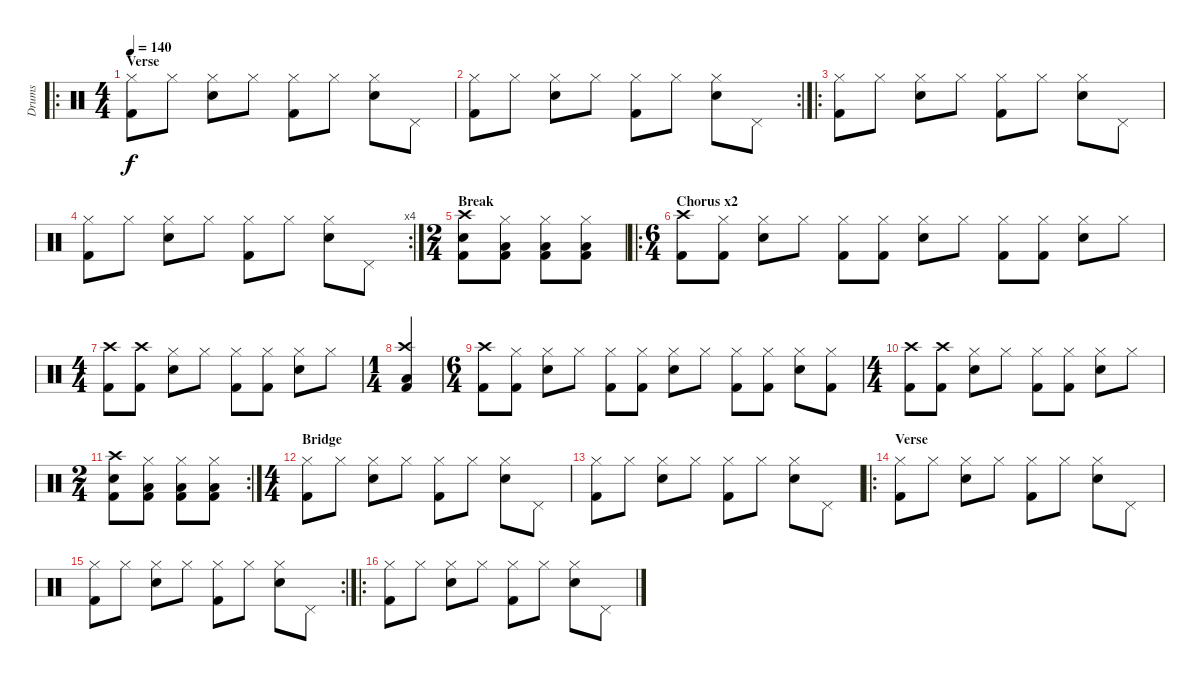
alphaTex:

\track ("Drums" "Drums") {instrument percussion}
\staff {score}
\articulation defaults
\ro
\ts (4 4)
\section ("" "Verse")
\tempo 140
\clef neutral
\ks c
("Hi-Hat (closed)" "Kick (hit) 2").8{dy f} "Hi-Hat (closed)".8 ("Hi-Hat (closed)" "Snare (hit) 2").8 "Hi-Hat (closed)".8 ("Hi-Hat (closed)" "Kick (hit) 2").8 "Hi-Hat (closed)".8 ("Hi-Hat (closed)" "Snare (hit) 2").8 "Pedal Hi-Hat (hit)".8 |
\rc 2
("Hi-Hat (closed)" "Kick (hit) 2").8 "Hi-Hat (closed)".8 ("Hi-Hat (closed)" "Snare (hit) 2").8 "Hi-Hat (closed)".8 ("Hi-Hat (closed)" "Kick (hit) 2").8 "Hi-Hat (closed)".8 ("Hi-Hat (closed)" "Snare (hit) 2").8 "Pedal Hi-Hat (hit)".8 |
\ro
("Hi-Hat (closed)" "Kick (hit) 2").8 "Hi-Hat (closed)".8 ("Hi-Hat (closed)" "Snare (hit) 2").8 "Hi-Hat (closed)".8 ("Hi-Hat (closed)" "Kick (hit) 2").8 "Hi-Hat (closed)".8 ("Hi-Hat (closed)" "Snare (hit) 2").8 "Pedal Hi-Hat (hit)".8 |
\rc 4
("Hi-Hat (closed)" "Kick (hit) 2").8 "Hi-Hat (closed)".8 ("Hi-Hat (closed)" "Snare (hit) 2").8 "Hi-Hat (closed)".8 ("Hi-Hat (closed)" "Kick (hit) 2").8 "Hi-Hat (closed)".8 ("Hi-Hat (closed)" "Snare (hit) 2").8 "Pedal Hi-Hat (hit)".8 |
\ts (2 4)
\section ("" "Break")
("Crash high (hit)" "Snare (hit) 2" "Kick (hit) 2").8 ("Hi-Hat (closed)" "Low Floor Tom (hit)" "Kick (hit) 2").8 ("Hi-Hat (closed)" "Low Floor Tom (hit)" "Kick (hit) 2").8 ("Hi-Hat (closed)" "Low Floor Tom (hit)" "Kick (hit) 2").8 |
\ro
\ts (6 4)
\section ("" "Chorus x2")
("Crash high (hit)" "Kick (hit) 2").8 ("Hi-Hat (closed)" "Kick (hit) 2").8 ("Hi-Hat (closed)" "Snare (hit) 2").8 "Hi-Hat (closed)".8 ("Hi-Hat (closed)" "Kick (hit) 2").8 ("Hi-Hat (closed)" "Kick (hit) 2").8 ("Hi-Hat (closed)" "Snare (hit) 2").8 "Hi-Hat (closed)".8 ("Hi-Hat (closed)" "Kick (hit) 2").8 ("Hi-Hat (closed)" "Kick (hit) 2").8 ("Hi-Hat (closed)" "Snare (hit) 2").8 "Hi-Hat (closed)".8 |
\ts (4 4)
("Crash high (hit)" "Kick (hit) 2").8 ("Crash high (hit)" "Kick (hit) 2").8 ("Hi-Hat (closed)" "Snare (hit) 2").8 "Hi-Hat (closed)".8 ("Hi-Hat (closed)" "Kick (hit) 2").8 ("Hi-Hat (closed)" "Kick (hit) 2").8 ("Hi-Hat (closed)" "Snare (hit) 2").8 "Hi-Hat (closed)".8 |
\ts (1 4)
("Crash high (hit)" "Low Floor Tom (hit)" "Kick (hit) 2").4 |
\ts (6 4)
("Crash high (hit)" "Kick (hit) 2").8 ("Hi-Hat (closed)" "Kick (hit) 2").8 ("Hi-Hat (closed)" "Snare (hit) 2").8 "Hi-Hat (closed)".8 ("Hi-Hat (closed)" "Kick (hit) 2").8 ("Hi-Hat (closed)" "Kick (hit) 2").8 ("Hi-Hat (closed)" "Snare (hit) 2").8 "Hi-Hat (closed)".8 ("Hi-Hat (closed)" "Kick (hit) 2").8 ("Hi-Hat (closed)" "Kick (hit) 2").8 ("Hi-Hat (closed)" "Snare (hit) 2").8 ("Hi-Hat (closed)" "Kick (hit) 2").8 |
\ts (4 4)
("Crash high (hit)" "Kick (hit) 2").8 ("Crash high (hit)" "Kick (hit) 2").8 ("Hi-Hat (closed)" "Snare (hit) 2").8 "Hi-Hat (closed)".8 ("Hi-Hat (closed)" "Kick (hit) 2").8 ("Hi-Hat (closed)" "Kick (hit) 2").8 ("Hi-Hat (closed)" "Snare (hit) 2").8 "Hi-Hat (closed)".8 |
\rc 2
\ts (2 4)
("Crash high (hit)" "Snare (hit) 2" "Kick (hit) 2").8 ("Hi-Hat (closed)" "Low Floor Tom (hit)" "Kick (hit) 2").8 ("Hi-Hat (closed)" "Low Floor Tom (hit)" "Kick (hit) 2").8 ("Hi-Hat (closed)" "Low Floor Tom (hit)" "Kick (hit) 2").8 |
\ts (4 4)
\section ("" "Bridge")
("Hi-Hat (closed)" "Kick (hit) 2").8 "Hi-Hat (closed)".8 ("Hi-Hat (closed)" "Snare (hit) 2").8 "Hi-Hat (closed)".8 ("Hi-Hat (closed)" "Kick (hit) 2").8 "Hi-Hat (closed)".8 ("Hi-Hat (closed)" "Snare (hit) 2").8 "Pedal Hi-Hat (hit)".8 |
("Hi-Hat (closed)" "Kick (hit) 2").8 "Hi-Hat (closed)".8 ("Hi-Hat (closed)" "Snare (hit) 2").8 "Hi-Hat (closed)".8 ("Hi-Hat (closed)" "Kick (hit) 2").8 "Hi-Hat (closed)".8 ("Hi-Hat (closed)" "Snare (hit) 2").8 "Pedal Hi-Hat (hit)".8 |
\ro
\section ("" "Verse")
("Hi-Hat (closed)" "Kick (hit) 2").8 "Hi-Hat (closed)".8 ("Hi-Hat (closed)" "Snare (hit) 2").8 "Hi-Hat (closed)".8 ("Hi-Hat (closed)" "Kick (hit) 2").8 "Hi-Hat (closed)".8 ("Hi-Hat (closed)" "Snare (hit) 2").8 "Pedal Hi-Hat (hit)".8 |
\rc 2
("Hi-Hat (closed)" "Kick (hit) 2").8 "Hi-Hat (closed)".8 ("Hi-Hat (closed)" "Snare (hit) 2").8 "Hi-Hat (closed)".8 ("Hi-Hat (closed)" "Kick (hit) 2").8 "Hi-Hat (closed)".8 ("Hi-Hat (closed)" "Snare (hit) 2").8 "Pedal Hi-Hat (hit)".8 |
\ro
("Hi-Hat (closed)" "Kick (hit) 2").8 "Hi-Hat (closed)".8 ("Hi-Hat (closed)" "Snare (hit) 2").8 "Hi-Hat (closed)".8 ("Hi-Hat (closed)" "Kick (hit) 2").8 "Hi-Hat (closed)".8 ("Hi-Hat (closed)" "Snare (hit) 2").8 "Pedal Hi-Hat (hit)".8
